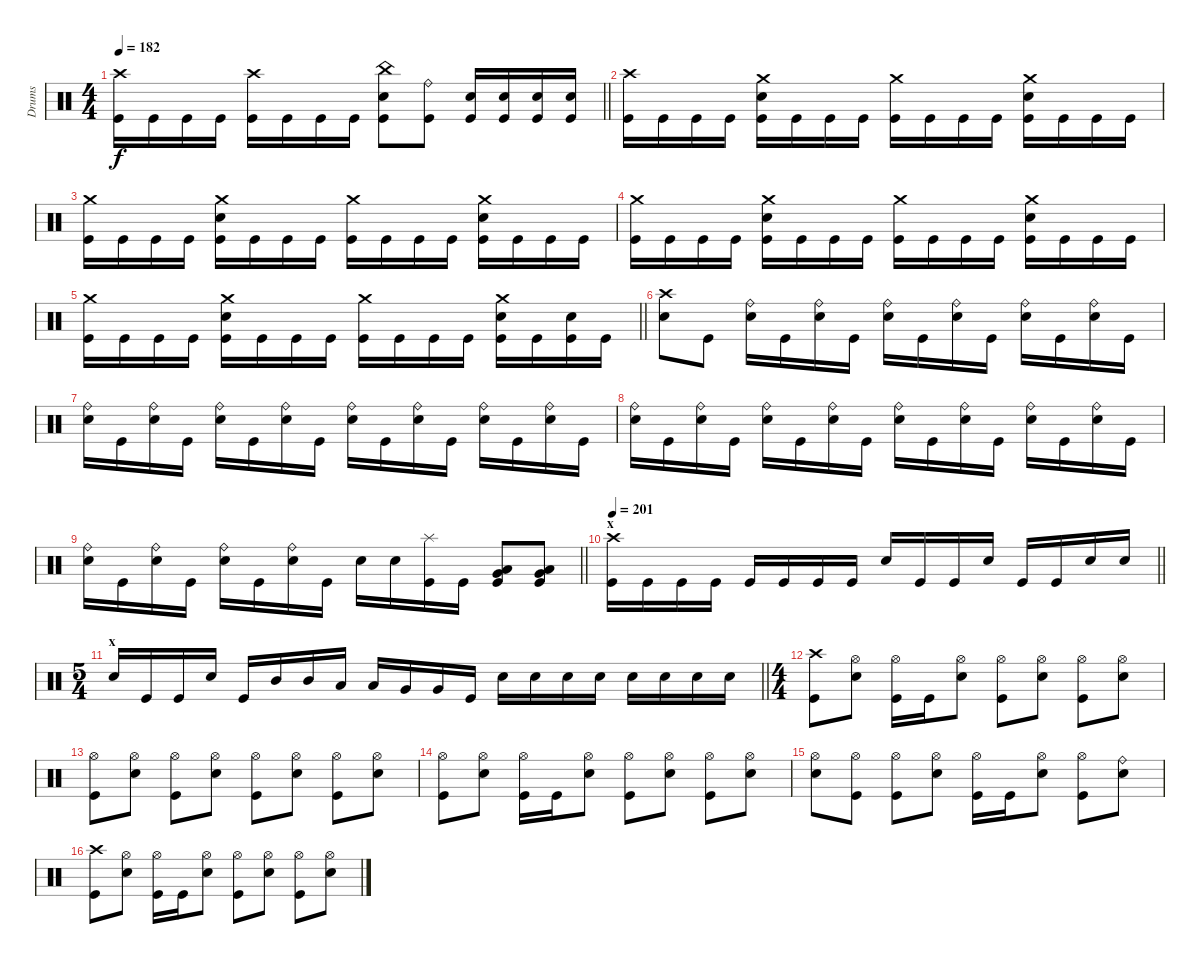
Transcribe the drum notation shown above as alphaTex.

\track ("Drums" "Drums") {instrument percussion}
\staff
\articulation defaults
\ts (4 4)
\tempo 182
\clef neutral
\barLineRight lightlight
\ks c
("Crash high (hit)" "Kick (hit)").16{dy f} "Kick (hit)".16 "Kick (hit)".16 "Kick (hit)".16 ("Crash high (hit)" "Kick (hit)").16 "Kick (hit)".16 "Kick (hit)".16 "Kick (hit)".16 ("China (hit)" "Electric Snare (hit)" "Kick (hit)").8 ("Ride (bell)" "Kick (hit)").8 ("Electric Snare (hit)" "Kick (hit)").16 ("Electric Snare (hit)" "Kick (hit)").16 ("Electric Snare (hit)" "Kick (hit)").16 ("Electric Snare (hit)" "Kick (hit)").16 |
\section ("" "")
("Crash high (hit)" "Kick (hit)").16 "Kick (hit)".16 "Kick (hit)".16 "Kick (hit)".16 ("Crash medium (hit)" "Electric Snare (hit)" "Kick (hit)").16 "Kick (hit)".16 "Kick (hit)".16 "Kick (hit)".16 ("Crash medium (hit)" "Kick (hit)").16 "Kick (hit)".16 "Kick (hit)".16 "Kick (hit)".16 ("Crash medium (hit)" "Electric Snare (hit)" "Kick (hit)").16 "Kick (hit)".16 "Kick (hit)".16 "Kick (hit)".16 |
("Crash medium (hit)" "Kick (hit)").16 "Kick (hit)".16 "Kick (hit)".16 "Kick (hit)".16 ("Crash medium (hit)" "Electric Snare (hit)" "Kick (hit)").16 "Kick (hit)".16 "Kick (hit)".16 "Kick (hit)".16 ("Crash medium (hit)" "Kick (hit)").16 "Kick (hit)".16 "Kick (hit)".16 "Kick (hit)".16 ("Crash medium (hit)" "Electric Snare (hit)" "Kick (hit)").16 "Kick (hit)".16 "Kick (hit)".16 "Kick (hit)".16 |
("Crash medium (hit)" "Kick (hit)").16 "Kick (hit)".16 "Kick (hit)".16 "Kick (hit)".16 ("Crash medium (hit)" "Electric Snare (hit)" "Kick (hit)").16 "Kick (hit)".16 "Kick (hit)".16 "Kick (hit)".16 ("Crash medium (hit)" "Kick (hit)").16 "Kick (hit)".16 "Kick (hit)".16 "Kick (hit)".16 ("Crash medium (hit)" "Electric Snare (hit)" "Kick (hit)").16 "Kick (hit)".16 "Kick (hit)".16 "Kick (hit)".16 |
\barLineRight lightlight
("Crash medium (hit)" "Kick (hit)").16 "Kick (hit)".16 "Kick (hit)".16 "Kick (hit)".16 ("Crash medium (hit)" "Electric Snare (hit)" "Kick (hit)").16 "Kick (hit)".16 "Kick (hit)".16 "Kick (hit)".16 ("Crash medium (hit)" "Kick (hit)").16 "Kick (hit)".16 "Kick (hit)".16 "Kick (hit)".16 ("Crash medium (hit)" "Electric Snare (hit)" "Kick (hit)").16 "Kick (hit)".16 ("Electric Snare (hit)" "Kick (hit)").16 "Kick (hit)".16 |
("Crash high (hit)" "Electric Snare (hit)").8 "Kick (hit)".8 ("Ride (bell)" "Electric Snare (hit)").16 "Kick (hit)".16 ("Ride (bell)" "Electric Snare (hit)").16 "Kick (hit)".16 ("Ride (bell)" "Electric Snare (hit)").16 "Kick (hit)".16 ("Ride (bell)" "Electric Snare (hit)").16 "Kick (hit)".16 ("Ride (bell)" "Electric Snare (hit)").16 "Kick (hit)".16 ("Ride (bell)" "Electric Snare (hit)").16 "Kick (hit)".16 |
("Ride (bell)" "Electric Snare (hit)").16 "Kick (hit)".16 ("Ride (bell)" "Electric Snare (hit)").16 "Kick (hit)".16 ("Ride (bell)" "Electric Snare (hit)").16 "Kick (hit)".16 ("Ride (bell)" "Electric Snare (hit)").16 "Kick (hit)".16 ("Ride (bell)" "Electric Snare (hit)").16 "Kick (hit)".16 ("Ride (bell)" "Electric Snare (hit)").16 "Kick (hit)".16 ("Ride (bell)" "Electric Snare (hit)").16 "Kick (hit)".16 ("Ride (bell)" "Electric Snare (hit)").16 "Kick (hit)".16 |
("Ride (bell)" "Electric Snare (hit)").16 "Kick (hit)".16 ("Ride (bell)" "Electric Snare (hit)").16 "Kick (hit)".16 ("Ride (bell)" "Electric Snare (hit)").16 "Kick (hit)".16 ("Ride (bell)" "Electric Snare (hit)").16 "Kick (hit)".16 ("Ride (bell)" "Electric Snare (hit)").16 "Kick (hit)".16 ("Ride (bell)" "Electric Snare (hit)").16 "Kick (hit)".16 ("Ride (bell)" "Electric Snare (hit)").16 "Kick (hit)".16 ("Ride (bell)" "Electric Snare (hit)").16 "Kick (hit)".16 |
\barLineRight lightlight
("Ride (bell)" "Electric Snare (hit)").16 "Kick (hit)".16 ("Ride (bell)" "Electric Snare (hit)").16 "Kick (hit)".16 ("Ride (bell)" "Electric Snare (hit)").16 "Kick (hit)".16 ("Ride (bell)" "Electric Snare (hit)").16 "Kick (hit)".16 "Electric Snare (hit)".16 "Electric Snare (hit)".16 ("Splash (hit)" "Kick (hit)").16 "Kick (hit)".16 ("Very Low Tom (hit)" "Low Floor Tom (hit)" "Kick (hit)").8 ("Very Low Tom (hit)" "Low Floor Tom (hit)" "Kick (hit)").8 |
\section ("" "x")
\tempo 201
\barLineRight lightlight
("Crash high (hit)" "Kick (hit)").16 "Kick (hit)".16 "Kick (hit)".16 "Kick (hit)".16 "Kick (hit)".16 "Kick (hit)".16 "Kick (hit)".16 "Kick (hit)".16 "Electric Snare (hit)".16 "Kick (hit)".16 "Kick (hit)".16 "Electric Snare (hit)".16 "Kick (hit)".16 "Kick (hit)".16 "Electric Snare (hit)".16 "Electric Snare (hit)".16 |
\ts (5 4)
\section ("" "x")
\barLineRight lightlight "Electric Snare (hit)".16 "Kick (hit)".16 "Kick (hit)".16 "Electric Snare (hit)".16 "Kick (hit)".16 "Mid Tom (hit)".16 "Mid Tom (hit)".16 "Low Tom (hit)".16 "Low Tom (hit)".16 "Very Low Tom (hit)".16 "Very Low Tom (hit)".16 "Kick (hit)".16 "Electric Snare (hit)".16{volume 2} "Electric Snare (hit)".16{volume 13} "Electric Snare (hit)".16 "Electric Snare (hit)".16 "Electric Snare (hit)".16 "Electric Snare (hit)".16 "Electric Snare (hit)".16 "Electric Snare (hit)".16
|
\ts (4 4)
\section ("" "")
("Crash high (hit)" "Kick (hit)").8 ("Hi-Hat (open)" "Electric Snare (hit)").8 ("Hi-Hat (open)" "Kick (hit)").16 "Kick (hit)".16 ("Hi-Hat (open)" "Electric Snare (hit)").8 ("Hi-Hat (open)" "Kick (hit)").8 ("Hi-Hat (open)" "Electric Snare (hit)").8 ("Hi-Hat (open)" "Kick (hit)").8 ("Hi-Hat (open)" "Electric Snare (hit)").8 |
("Hi-Hat (open)" "Kick (hit)").8 ("Hi-Hat (open)" "Electric Snare (hit)").8 ("Hi-Hat (open)" "Kick (hit)").8 ("Hi-Hat (open)" "Electric Snare (hit)").8 ("Hi-Hat (open)" "Kick (hit)").8 ("Hi-Hat (open)" "Electric Snare (hit)").8 ("Hi-Hat (open)" "Kick (hit)").8 ("Hi-Hat (open)" "Electric Snare (hit)").8 |
("Hi-Hat (open)" "Kick (hit)").8 ("Hi-Hat (open)" "Electric Snare (hit)").8 ("Hi-Hat (open)" "Kick (hit)").16 "Kick (hit)".16 ("Hi-Hat (open)" "Electric Snare (hit)").8 ("Hi-Hat (open)" "Kick (hit)").8 ("Hi-Hat (open)" "Electric Snare (hit)").8 ("Hi-Hat (open)" "Kick (hit)").8 ("Hi-Hat (open)" "Electric Snare (hit)").8 |
("Hi-Hat (open)" "Electric Snare (hit)").8 ("Hi-Hat (open)" "Kick (hit)").8 ("Hi-Hat (open)" "Kick (hit)").8 ("Hi-Hat (open)" "Electric Snare (hit)").8 ("Hi-Hat (open)" "Kick (hit)").16 "Kick (hit)".16 ("Hi-Hat (open)" "Electric Snare (hit)").8 ("Hi-Hat (open)" "Kick (hit)").8 ("Ride (bell)" "Electric Snare (hit)").8 |
("Crash high (hit)" "Kick (hit)").8 ("Hi-Hat (open)" "Electric Snare (hit)").8 ("Hi-Hat (open)" "Kick (hit)").16 "Kick (hit)".16 ("Hi-Hat (open)" "Electric Snare (hit)").8 ("Hi-Hat (open)" "Kick (hit)").8 ("Hi-Hat (open)" "Electric Snare (hit)").8 ("Hi-Hat (open)" "Kick (hit)").8 ("Hi-Hat (open)" "Electric Snare (hit)").8
